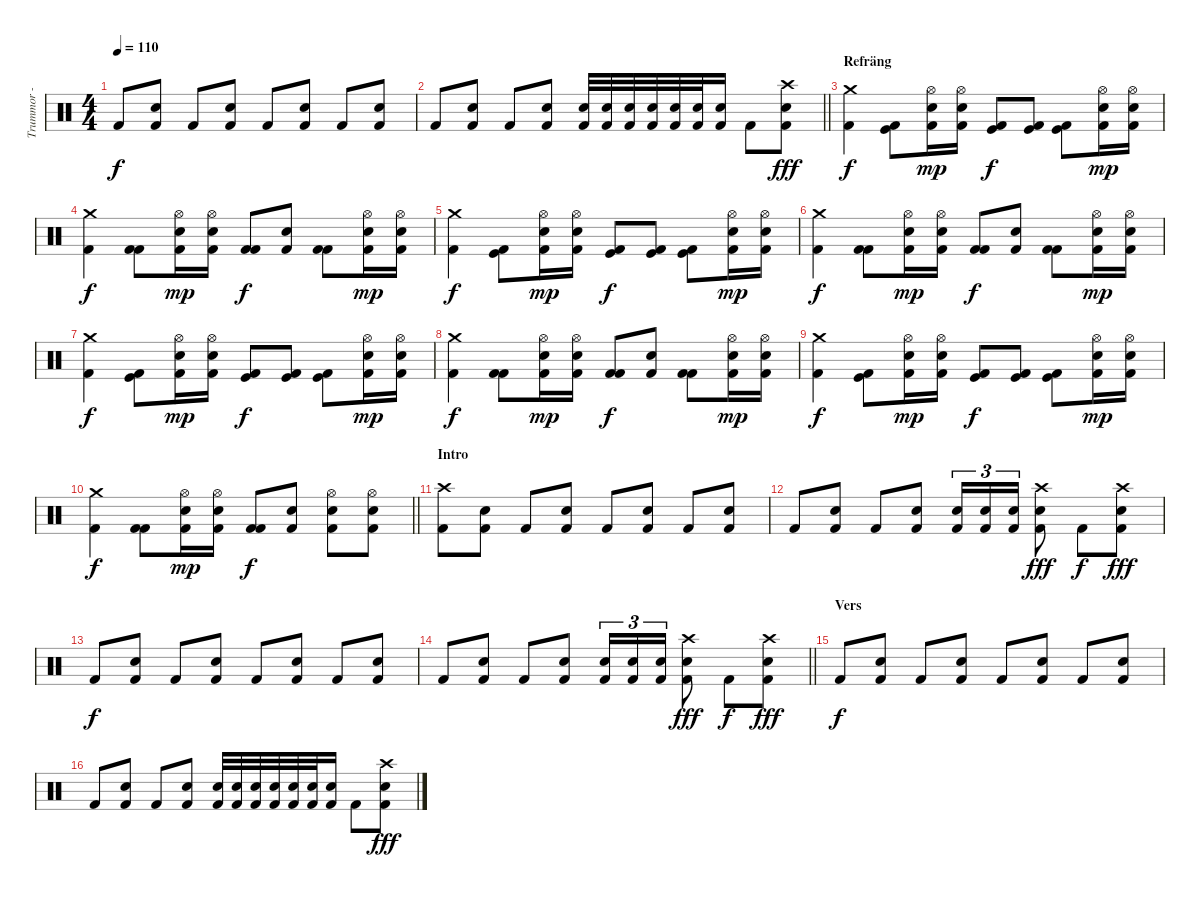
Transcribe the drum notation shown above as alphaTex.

\track ("Trummor - Larzon" "Trummor - ") {instrument percussion}
\staff {score}
\articulation defaults
\ts (4 4)
\tempo 110
\clef neutral
\ks c "Kick (hit) 2".8{dy f}
("Kick (hit) 2" "Snare (hit) 2").8 "Kick (hit) 2".8 ("Kick (hit) 2" "Snare (hit) 2").8 "Kick (hit) 2".8 ("Kick (hit) 2" "Snare (hit) 2").8 "Kick (hit) 2".8 ("Kick (hit) 2" "Snare (hit) 2").8 |
\barLineRight lightlight "Kick (hit) 2".8
("Kick (hit) 2" "Snare (hit) 2").8 "Kick (hit) 2".8 ("Kick (hit) 2" "Snare (hit) 2").8 ("Kick (hit) 2" "Snare (hit) 2").32 ("Kick (hit) 2" "Snare (hit) 2").32 ("Kick (hit) 2" "Snare (hit) 2").32 ("Kick (hit) 2" "Snare (hit) 2").32 ("Kick (hit) 2" "Snare (hit) 2").32 ("Kick (hit) 2" "Snare (hit) 2").32 ("Kick (hit) 2" "Snare (hit) 2").16 "Kick (hit) 2".8 ("Kick (hit) 2" "Crash high (hit)" "Snare (hit) 2").8{dy fff} |
\section ("" "Refräng")
("Crash medium (hit)" "Kick (hit) 2").4{dy f} ("Kick (hit)" "Kick (hit) 2").8 ("Snare (hit) 2" "Hi-Hat (open)" "Kick (hit) 2").16{dy mp} ("Snare (hit) 2" "Hi-Hat (open)" "Kick (hit) 2").16 ("Kick (hit)" "Kick (hit) 2").8{dy f} ("Kick (hit)" "Kick (hit) 2").8 ("Kick (hit)" "Kick (hit) 2").8 ("Snare (hit) 2" "Hi-Hat (open)" "Kick (hit) 2").16{dy mp} ("Snare (hit) 2" "Hi-Hat (open)" "Kick (hit) 2").16 |
("Crash medium (hit)" "Kick (hit) 2").4{dy f} ("Kick (hit) 2" "Kick (hit) 2").8 ("Snare (hit) 2" "Hi-Hat (open)" "Kick (hit) 2").16{dy mp} ("Snare (hit) 2" "Hi-Hat (open)" "Kick (hit) 2").16 ("Kick (hit) 2" "Kick (hit) 2").8{dy f} ("Snare (hit) 2" "Kick (hit) 2").8 ("Kick (hit) 2" "Kick (hit) 2").8 ("Snare (hit) 2" "Hi-Hat (open)" "Kick (hit) 2").16{dy mp} ("Snare (hit) 2" "Hi-Hat (open)" "Kick (hit) 2").16 |
("Crash medium (hit)" "Kick (hit) 2").4{dy f} ("Kick (hit)" "Kick (hit) 2").8 ("Snare (hit) 2" "Hi-Hat (open)" "Kick (hit) 2").16{dy mp} ("Snare (hit) 2" "Hi-Hat (open)" "Kick (hit) 2").16 ("Kick (hit)" "Kick (hit) 2").8{dy f} ("Kick (hit)" "Kick (hit) 2").8 ("Kick (hit)" "Kick (hit) 2").8 ("Snare (hit) 2" "Hi-Hat (open)" "Kick (hit) 2").16{dy mp} ("Snare (hit) 2" "Hi-Hat (open)" "Kick (hit) 2").16 |
("Crash medium (hit)" "Kick (hit) 2").4{dy f} ("Kick (hit) 2" "Kick (hit) 2").8 ("Snare (hit) 2" "Hi-Hat (open)" "Kick (hit) 2").16{dy mp} ("Snare (hit) 2" "Hi-Hat (open)" "Kick (hit) 2").16 ("Kick (hit) 2" "Kick (hit) 2").8{dy f} ("Snare (hit) 2" "Kick (hit) 2").8 ("Kick (hit) 2" "Kick (hit) 2").8 ("Snare (hit) 2" "Hi-Hat (open)" "Kick (hit) 2").16{dy mp} ("Snare (hit) 2" "Hi-Hat (open)" "Kick (hit) 2").16 |
("Crash medium (hit)" "Kick (hit) 2").4{dy f} ("Kick (hit)" "Kick (hit) 2").8 ("Snare (hit) 2" "Hi-Hat (open)" "Kick (hit) 2").16{dy mp} ("Snare (hit) 2" "Hi-Hat (open)" "Kick (hit) 2").16 ("Kick (hit)" "Kick (hit) 2").8{dy f} ("Kick (hit)" "Kick (hit) 2").8 ("Kick (hit)" "Kick (hit) 2").8 ("Snare (hit) 2" "Hi-Hat (open)" "Kick (hit) 2").16{dy mp} ("Snare (hit) 2" "Hi-Hat (open)" "Kick (hit) 2").16 |
("Crash medium (hit)" "Kick (hit) 2").4{dy f} ("Kick (hit) 2" "Kick (hit) 2").8 ("Snare (hit) 2" "Hi-Hat (open)" "Kick (hit) 2").16{dy mp} ("Snare (hit) 2" "Hi-Hat (open)" "Kick (hit) 2").16 ("Kick (hit) 2" "Kick (hit) 2").8{dy f} ("Snare (hit) 2" "Kick (hit) 2").8 ("Kick (hit) 2" "Kick (hit) 2").8 ("Snare (hit) 2" "Hi-Hat (open)" "Kick (hit) 2").16{dy mp} ("Snare (hit) 2" "Hi-Hat (open)" "Kick (hit) 2").16 |
("Crash medium (hit)" "Kick (hit) 2").4{dy f} ("Kick (hit)" "Kick (hit) 2").8 ("Snare (hit) 2" "Hi-Hat (open)" "Kick (hit) 2").16{dy mp} ("Snare (hit) 2" "Hi-Hat (open)" "Kick (hit) 2").16 ("Kick (hit)" "Kick (hit) 2").8{dy f} ("Kick (hit)" "Kick (hit) 2").8 ("Kick (hit)" "Kick (hit) 2").8 ("Snare (hit) 2" "Hi-Hat (open)" "Kick (hit) 2").16{dy mp} ("Snare (hit) 2" "Hi-Hat (open)" "Kick (hit) 2").16 |
\barLineRight lightlight
("Crash medium (hit)" "Kick (hit) 2").4{dy f} ("Kick (hit) 2" "Kick (hit) 2").8 ("Snare (hit) 2" "Hi-Hat (open)" "Kick (hit) 2").16{dy mp} ("Snare (hit) 2" "Hi-Hat (open)" "Kick (hit) 2").16 ("Kick (hit) 2" "Kick (hit) 2").8{dy f} ("Snare (hit) 2" "Kick (hit) 2").8 ("Snare (hit) 2" "Hi-Hat (open)" "Kick (hit) 2").8 ("Snare (hit) 2" "Hi-Hat (open)" "Kick (hit) 2").8 |
\section ("" "Intro")
("Kick (hit) 2" "Crash high (hit)").8 ("Kick (hit) 2" "Snare (hit) 2").8 "Kick (hit) 2".8 ("Kick (hit) 2" "Snare (hit) 2").8 "Kick (hit) 2".8 ("Kick (hit) 2" "Snare (hit) 2").8 "Kick (hit) 2".8 ("Kick (hit) 2" "Snare (hit) 2").8 |
"Kick (hit) 2".8 ("Kick (hit) 2" "Snare (hit) 2").8 "Kick (hit) 2".8 ("Kick (hit) 2" "Snare (hit) 2").8 ("Kick (hit) 2" "Snare (hit) 2").16{tu (3 2)} ("Kick (hit) 2" "Snare (hit) 2").16{tu (3 2)} ("Kick (hit) 2" "Snare (hit) 2").16{tu (3 2)} ("Kick (hit) 2" "Crash high (hit)" "Snare (hit) 2").8{dy fff} "Kick (hit) 2".8{dy f} ("Kick (hit) 2" "Crash high (hit)" "Snare (hit) 2").8{dy fff} |
"Kick (hit) 2".8{dy f} ("Kick (hit) 2" "Snare (hit) 2").8 "Kick (hit) 2".8 ("Kick (hit) 2" "Snare (hit) 2").8 "Kick (hit) 2".8 ("Kick (hit) 2" "Snare (hit) 2").8 "Kick (hit) 2".8 ("Kick (hit) 2" "Snare (hit) 2").8 |
\barLineRight lightlight "Kick (hit) 2".8
("Kick (hit) 2" "Snare (hit) 2").8 "Kick (hit) 2".8 ("Kick (hit) 2" "Snare (hit) 2").8 ("Kick (hit) 2" "Snare (hit) 2").16{tu (3 2)} ("Kick (hit) 2" "Snare (hit) 2").16{tu (3 2)} ("Kick (hit) 2" "Snare (hit) 2").16{tu (3 2)} ("Kick (hit) 2" "Crash high (hit)" "Snare (hit) 2").8{dy fff} "Kick (hit) 2".8{dy f} ("Kick (hit) 2" "Crash high (hit)" "Snare (hit) 2").8{dy fff} |
\section ("" "Vers")
"Kick (hit) 2".8{dy f} ("Kick (hit) 2" "Snare (hit) 2").8 "Kick (hit) 2".8 ("Kick (hit) 2" "Snare (hit) 2").8 "Kick (hit) 2".8 ("Kick (hit) 2" "Snare (hit) 2").8 "Kick (hit) 2".8 ("Kick (hit) 2" "Snare (hit) 2").8 |
"Kick (hit) 2".8 ("Kick (hit) 2" "Snare (hit) 2").8 "Kick (hit) 2".8 ("Kick (hit) 2" "Snare (hit) 2").8 ("Kick (hit) 2" "Snare (hit) 2").32 ("Kick (hit) 2" "Snare (hit) 2").32 ("Kick (hit) 2" "Snare (hit) 2").32 ("Kick (hit) 2" "Snare (hit) 2").32 ("Kick (hit) 2" "Snare (hit) 2").32 ("Kick (hit) 2" "Snare (hit) 2").32 ("Kick (hit) 2" "Snare (hit) 2").16 "Kick (hit) 2".8 ("Kick (hit) 2" "Crash high (hit)" "Snare (hit) 2").8{dy fff}
